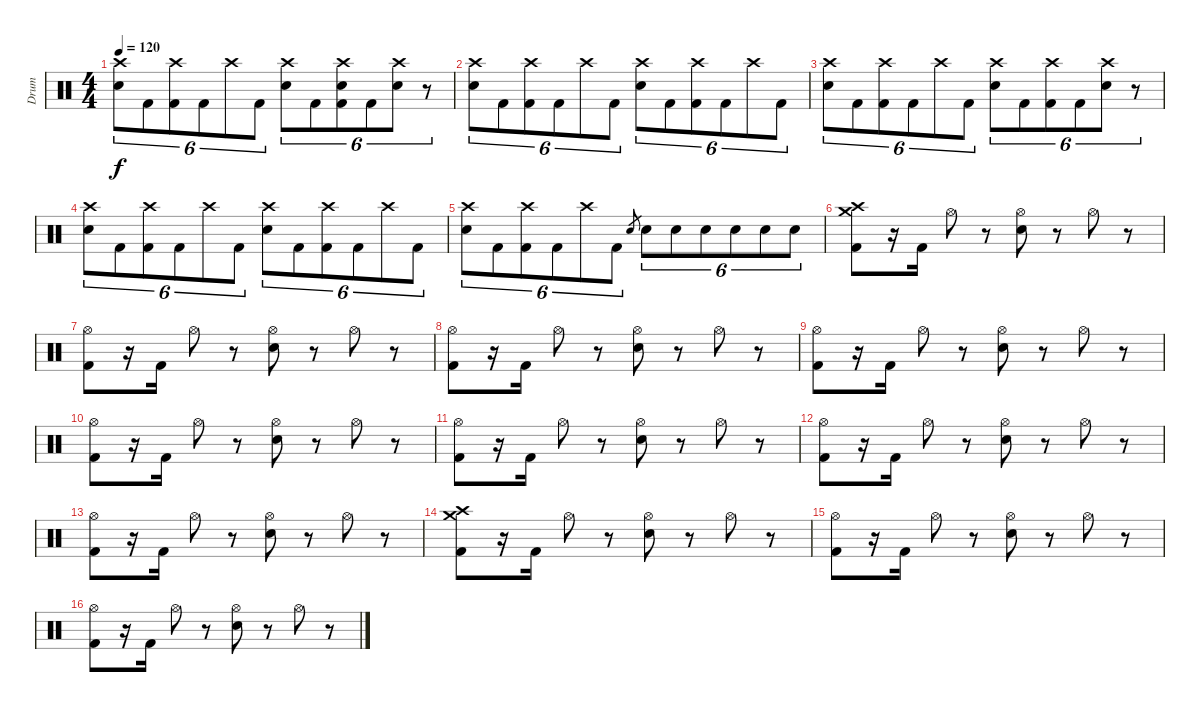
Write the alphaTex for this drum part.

\track ("Drum" "Drum") {instrument percussion}
\staff {score}
\articulation defaults
\ts (4 4)
\tempo 120
\clef neutral
\ks c
("Crash high (hit)" "Electric Snare (hit)").8{tu (6 4) dy f} "Kick (hit) 2".8{tu (6 4)} ("Crash high (hit)" "Kick (hit) 2").8{tu (6 4)} "Kick (hit) 2".8{tu (6 4)} "Crash high (hit)".8{tu (6 4)} "Kick (hit) 2".8{tu (6 4)} ("Crash high (hit)" "Electric Snare (hit)").8{tu (6 4)} "Kick (hit) 2".8{tu (6 4)} ("Crash high (hit)" "Electric Snare (hit)" "Kick (hit) 2").8{tu (6 4)} "Kick (hit) 2".8{tu (6 4)} ("Crash high (hit)" "Electric Snare (hit)").8{tu (6 4)} r.8{tu (6 4)} |
("Crash high (hit)" "Electric Snare (hit)").8{tu (6 4)} "Kick (hit) 2".8{tu (6 4)} ("Crash high (hit)" "Kick (hit) 2").8{tu (6 4)} "Kick (hit) 2".8{tu (6 4)} "Crash high (hit)".8{tu (6 4)} "Kick (hit) 2".8{tu (6 4)} ("Crash high (hit)" "Electric Snare (hit)").8{tu (6 4)} "Kick (hit) 2".8{tu (6 4)} ("Crash high (hit)" "Kick (hit) 2").8{tu (6 4)} "Kick (hit) 2".8{tu (6 4)} "Crash high (hit)".8{tu (6 4)} "Kick (hit) 2".8{tu (6 4)} |
("Crash high (hit)" "Electric Snare (hit)").8{tu (6 4)} "Kick (hit) 2".8{tu (6 4)} ("Crash high (hit)" "Kick (hit) 2").8{tu (6 4)} "Kick (hit) 2".8{tu (6 4)} "Crash high (hit)".8{tu (6 4)} "Kick (hit) 2".8{tu (6 4)} ("Crash high (hit)" "Electric Snare (hit)").8{tu (6 4)} "Kick (hit) 2".8{tu (6 4)} ("Crash high (hit)" "Kick (hit) 2").8{tu (6 4)} "Kick (hit) 2".8{tu (6 4)} ("Crash high (hit)" "Electric Snare (hit)").8{tu (6 4)} r.8{tu (6 4)} |
("Crash high (hit)" "Electric Snare (hit)").8{tu (6 4)} "Kick (hit) 2".8{tu (6 4)} ("Crash high (hit)" "Kick (hit) 2").8{tu (6 4)} "Kick (hit) 2".8{tu (6 4)} "Crash high (hit)".8{tu (6 4)} "Kick (hit) 2".8{tu (6 4)} ("Crash high (hit)" "Electric Snare (hit)").8{tu (6 4)} "Kick (hit) 2".8{tu (6 4)} ("Crash high (hit)" "Kick (hit) 2").8{tu (6 4)} "Kick (hit) 2".8{tu (6 4)} "Crash high (hit)".8{tu (6 4)} "Kick (hit) 2".8{tu (6 4)} |
("Crash high (hit)" "Electric Snare (hit)").8{tu (6 4)} "Kick (hit) 2".8{tu (6 4)} ("Crash high (hit)" "Kick (hit) 2").8{tu (6 4)} "Kick (hit) 2".8{tu (6 4)} "Crash high (hit)".8{tu (6 4)} "Kick (hit) 2".8{tu (6 4)} "Electric Snare (hit)".8{gr} "Electric Snare (hit)".8{tu (6 4)} "Electric Snare (hit)".8{tu (6 4)} "Electric Snare (hit)".8{tu (6 4)} "Electric Snare (hit)".8{tu (6 4)} "Electric Snare (hit)".8{tu (6 4)} "Electric Snare (hit)".8{tu (6 4)} |
("Crash high (hit)" "Crash medium (hit)" "Kick (hit) 2").8 r.16 "Kick (hit) 2".16 "Hi-Hat (open)".8 r.8 ("Hi-Hat (open)" "Electric Snare (hit)").8 r.8 "Hi-Hat (open)".8 r.8 |
("Hi-Hat (open)" "Kick (hit) 2").8 r.16 "Kick (hit) 2".16 "Hi-Hat (open)".8 r.8 ("Hi-Hat (open)" "Electric Snare (hit)").8 r.8 "Hi-Hat (open)".8 r.8 |
("Hi-Hat (open)" "Kick (hit) 2").8 r.16 "Kick (hit) 2".16 "Hi-Hat (open)".8 r.8 ("Hi-Hat (open)" "Electric Snare (hit)").8 r.8 "Hi-Hat (open)".8 r.8 |
("Hi-Hat (open)" "Kick (hit) 2").8 r.16 "Kick (hit) 2".16 "Hi-Hat (open)".8 r.8 ("Hi-Hat (open)" "Electric Snare (hit)").8 r.8 "Hi-Hat (open)".8 r.8 |
("Hi-Hat (open)" "Kick (hit) 2").8 r.16 "Kick (hit) 2".16 "Hi-Hat (open)".8 r.8 ("Hi-Hat (open)" "Electric Snare (hit)").8 r.8 "Hi-Hat (open)".8 r.8 |
("Hi-Hat (open)" "Kick (hit) 2").8 r.16 "Kick (hit) 2".16 "Hi-Hat (open)".8 r.8 ("Hi-Hat (open)" "Electric Snare (hit)").8 r.8 "Hi-Hat (open)".8 r.8 |
("Hi-Hat (open)" "Kick (hit) 2").8 r.16 "Kick (hit) 2".16 "Hi-Hat (open)".8 r.8 ("Hi-Hat (open)" "Electric Snare (hit)").8 r.8 "Hi-Hat (open)".8 r.8 |
("Hi-Hat (open)" "Kick (hit) 2").8 r.16 "Kick (hit) 2".16 "Hi-Hat (open)".8 r.8 ("Hi-Hat (open)" "Electric Snare (hit)").8 r.8 "Hi-Hat (open)".8 r.8 |
("Crash high (hit)" "Crash medium (hit)" "Kick (hit) 2").8 r.16 "Kick (hit) 2".16 "Hi-Hat (open)".8 r.8 ("Hi-Hat (open)" "Electric Snare (hit)").8 r.8 "Hi-Hat (open)".8 r.8 |
("Hi-Hat (open)" "Kick (hit) 2").8 r.16 "Kick (hit) 2".16 "Hi-Hat (open)".8 r.8 ("Hi-Hat (open)" "Electric Snare (hit)").8 r.8 "Hi-Hat (open)".8 r.8 |
("Hi-Hat (open)" "Kick (hit) 2").8 r.16 "Kick (hit) 2".16 "Hi-Hat (open)".8 r.8 ("Hi-Hat (open)" "Electric Snare (hit)").8 r.8 "Hi-Hat (open)".8 r.8
